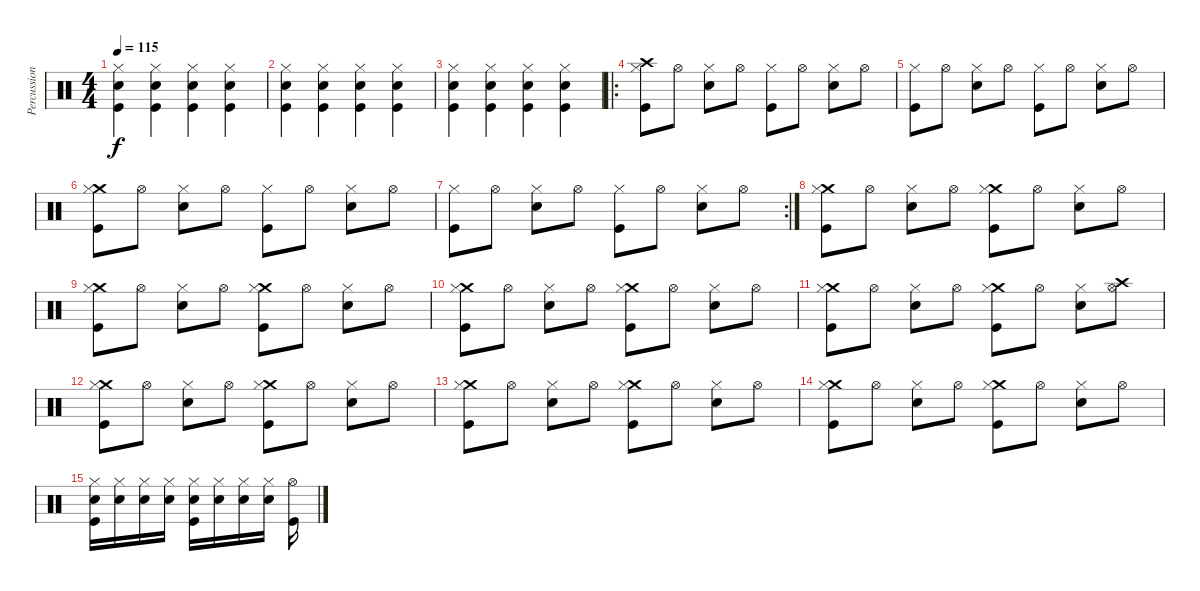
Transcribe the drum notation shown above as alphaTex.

\track ("Percussion" "Percussion") {instrument percussion}
\staff {score}
\articulation defaults
\ts (4 4)
\tempo 115
\clef neutral
\ks c
("Hi-Hat (closed)" "Snare (hit) 2" "Kick (hit)").4{dy f} ("Hi-Hat (closed)" "Snare (hit) 2" "Kick (hit)").4 ("Hi-Hat (closed)" "Snare (hit) 2" "Kick (hit)").4 ("Hi-Hat (closed)" "Snare (hit) 2" "Kick (hit)").4 |
("Hi-Hat (closed)" "Snare (hit) 2" "Kick (hit)").4 ("Hi-Hat (closed)" "Snare (hit) 2" "Kick (hit)").4 ("Hi-Hat (closed)" "Snare (hit) 2" "Kick (hit)").4 ("Hi-Hat (closed)" "Snare (hit) 2" "Kick (hit)").4 |
("Hi-Hat (closed)" "Snare (hit) 2" "Kick (hit)").4 ("Hi-Hat (closed)" "Snare (hit) 2" "Kick (hit)").4 ("Hi-Hat (closed)" "Snare (hit) 2" "Kick (hit)").4 ("Hi-Hat (closed)" "Snare (hit) 2" "Kick (hit)").4 |
\ro
("Crash high (hit)" "Hi-Hat (closed)" "Kick (hit)").8 "Hi-Hat (open)".8 ("Hi-Hat (closed)" "Snare (hit) 2").8 "Hi-Hat (open)".8 ("Hi-Hat (closed)" "Kick (hit)").8 "Hi-Hat (open)".8 ("Hi-Hat (closed)" "Snare (hit) 2").8 "Hi-Hat (open)".8 |
("Hi-Hat (closed)" "Kick (hit)").8 "Hi-Hat (open)".8 ("Hi-Hat (closed)" "Snare (hit) 2").8 "Hi-Hat (open)".8 ("Hi-Hat (closed)" "Kick (hit)").8 "Hi-Hat (open)".8 ("Hi-Hat (closed)" "Snare (hit) 2").8 "Hi-Hat (open)".8 |
("Crash medium (hit)" "Hi-Hat (closed)" "Kick (hit)").8 "Hi-Hat (open)".8 ("Hi-Hat (closed)" "Snare (hit) 2").8 "Hi-Hat (open)".8 ("Hi-Hat (closed)" "Kick (hit)").8 "Hi-Hat (open)".8 ("Hi-Hat (closed)" "Snare (hit) 2").8 "Hi-Hat (open)".8 |
\rc 2
("Hi-Hat (closed)" "Kick (hit)").8 "Hi-Hat (open)".8 ("Hi-Hat (closed)" "Snare (hit) 2").8 "Hi-Hat (open)".8 ("Hi-Hat (closed)" "Kick (hit)").8 "Hi-Hat (open)".8 ("Hi-Hat (closed)" "Snare (hit) 2").8 "Hi-Hat (open)".8 |
("Crash medium (hit)" "Hi-Hat (closed)" "Kick (hit)").8 "Hi-Hat (open)".8 ("Hi-Hat (closed)" "Snare (hit) 2").8 "Hi-Hat (open)".8 ("Crash medium (hit)" "Hi-Hat (closed)" "Kick (hit)").8 "Hi-Hat (open)".8 ("Hi-Hat (closed)" "Snare (hit) 2").8 "Hi-Hat (open)".8 |
("Crash medium (hit)" "Hi-Hat (closed)" "Kick (hit)").8 "Hi-Hat (open)".8 ("Hi-Hat (closed)" "Snare (hit) 2").8 "Hi-Hat (open)".8 ("Crash medium (hit)" "Hi-Hat (closed)" "Kick (hit)").8 "Hi-Hat (open)".8 ("Hi-Hat (closed)" "Snare (hit) 2").8 "Hi-Hat (open)".8 |
("Crash medium (hit)" "Hi-Hat (closed)" "Kick (hit)").8 "Hi-Hat (open)".8 ("Hi-Hat (closed)" "Snare (hit) 2").8 "Hi-Hat (open)".8 ("Crash medium (hit)" "Hi-Hat (closed)" "Kick (hit)").8 "Hi-Hat (open)".8 ("Hi-Hat (closed)" "Snare (hit) 2").8 "Hi-Hat (open)".8 |
("Crash medium (hit)" "Hi-Hat (closed)" "Kick (hit)").8 "Hi-Hat (open)".8 ("Hi-Hat (closed)" "Snare (hit) 2").8 "Hi-Hat (open)".8 ("Crash medium (hit)" "Hi-Hat (closed)" "Kick (hit)").8 "Hi-Hat (open)".8 ("Hi-Hat (closed)" "Snare (hit) 2").8 ("Crash high (hit)" "Hi-Hat (open)").8 |
("Crash medium (hit)" "Hi-Hat (closed)" "Kick (hit)").8 "Hi-Hat (open)".8 ("Hi-Hat (closed)" "Snare (hit) 2").8 "Hi-Hat (open)".8 ("Crash medium (hit)" "Hi-Hat (closed)" "Kick (hit)").8 "Hi-Hat (open)".8 ("Hi-Hat (closed)" "Snare (hit) 2").8 "Hi-Hat (open)".8 |
("Crash medium (hit)" "Hi-Hat (closed)" "Kick (hit)").8 "Hi-Hat (open)".8 ("Hi-Hat (closed)" "Snare (hit) 2").8 "Hi-Hat (open)".8 ("Crash medium (hit)" "Hi-Hat (closed)" "Kick (hit)").8 "Hi-Hat (open)".8 ("Hi-Hat (closed)" "Snare (hit) 2").8 "Hi-Hat (open)".8 |
("Crash medium (hit)" "Hi-Hat (closed)" "Kick (hit)").8 "Hi-Hat (open)".8 ("Hi-Hat (closed)" "Snare (hit) 2").8 "Hi-Hat (open)".8 ("Crash medium (hit)" "Hi-Hat (closed)" "Kick (hit)").8 "Hi-Hat (open)".8 ("Hi-Hat (closed)" "Snare (hit) 2").8 "Hi-Hat (open)".8 |
("Hi-Hat (closed)" "Snare (hit) 2" "Kick (hit)").16 ("Hi-Hat (closed)" "Snare (hit) 2").16 ("Hi-Hat (closed)" "Snare (hit) 2").16 ("Hi-Hat (closed)" "Snare (hit) 2").16 ("Hi-Hat (closed)" "Snare (hit) 2" "Kick (hit)").16 ("Hi-Hat (closed)" "Snare (hit) 2").16 ("Hi-Hat (closed)" "Snare (hit) 2").16 ("Hi-Hat (closed)" "Snare (hit) 2").16 ("Hi-Hat (open)" "Kick (hit)").16
